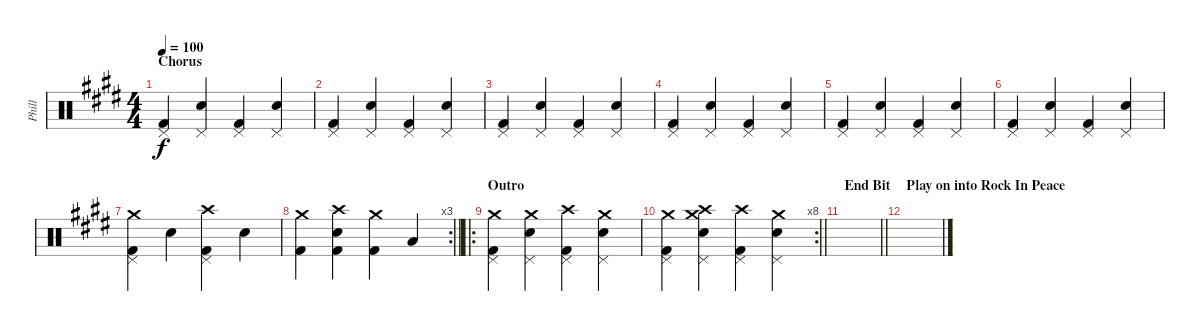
\track ("Phill" "Phill") {instrument percussion}
\staff {score}
\articulation defaults
\ts (4 4)
\section ("" "Chorus")
\tempo 100
\clef neutral
\ks e
("Kick (hit) 2" "Pedal Hi-Hat (hit)").4{dy f} ("Snare (hit) 2" "Pedal Hi-Hat (hit)").4 ("Kick (hit) 2" "Pedal Hi-Hat (hit)").4 ("Snare (hit) 2" "Pedal Hi-Hat (hit)").4 |
("Kick (hit) 2" "Pedal Hi-Hat (hit)").4 ("Snare (hit) 2" "Pedal Hi-Hat (hit)").4 ("Kick (hit) 2" "Pedal Hi-Hat (hit)").4 ("Snare (hit) 2" "Pedal Hi-Hat (hit)").4 |
("Kick (hit) 2" "Pedal Hi-Hat (hit)").4 ("Snare (hit) 2" "Pedal Hi-Hat (hit)").4 ("Kick (hit) 2" "Pedal Hi-Hat (hit)").4 ("Snare (hit) 2" "Pedal Hi-Hat (hit)").4 |
("Kick (hit) 2" "Pedal Hi-Hat (hit)").4 ("Snare (hit) 2" "Pedal Hi-Hat (hit)").4 ("Kick (hit) 2" "Pedal Hi-Hat (hit)").4 ("Snare (hit) 2" "Pedal Hi-Hat (hit)").4 |
("Kick (hit) 2" "Pedal Hi-Hat (hit)").4 ("Snare (hit) 2" "Pedal Hi-Hat (hit)").4 ("Kick (hit) 2" "Pedal Hi-Hat (hit)").4 ("Snare (hit) 2" "Pedal Hi-Hat (hit)").4 |
("Kick (hit) 2" "Pedal Hi-Hat (hit)").4 ("Snare (hit) 2" "Pedal Hi-Hat (hit)").4 ("Kick (hit) 2" "Pedal Hi-Hat (hit)").4 ("Snare (hit) 2" "Pedal Hi-Hat (hit)").4 |
("Kick (hit) 2" "Pedal Hi-Hat (hit)" "Crash medium (hit)").4 "Snare (hit) 2".4 ("Kick (hit) 2" "Pedal Hi-Hat (hit)" "Crash high (hit)").4 "Snare (hit) 2".4 |
\rc 3
\barLineRight lightlight
("Kick (hit) 2" "Crash medium (hit)").4 ("Kick (hit) 2" "Snare (hit) 2" "Crash high (hit)").4 ("Kick (hit) 2" "Crash medium (hit)").4 "Low Floor Tom (hit)".4 |
\ro
\section ("" "Outro")
("Kick (hit) 2" "Pedal Hi-Hat (hit)" "Crash medium (hit)").4 ("Snare (hit) 2" "Pedal Hi-Hat (hit)" "Crash medium (hit)").4 ("Kick (hit) 2" "Pedal Hi-Hat (hit)" "Crash high (hit)").4 ("Snare (hit) 2" "Pedal Hi-Hat (hit)" "Crash medium (hit)").4 |
\rc 8
\barLineRight lightlight
("Kick (hit) 2" "Pedal Hi-Hat (hit)" "Crash medium (hit)").4 ("Snare (hit) 2" "Pedal Hi-Hat (hit)" "Crash medium (hit)" "Crash high (hit)").4 ("Kick (hit) 2" "Pedal Hi-Hat (hit)" "Crash high (hit)").4 ("Snare (hit) 2" "Pedal Hi-Hat (hit)" "Crash medium (hit)").4 |
\section ("" "End Bit")
\barLineRight lightlight
|
\section ("" "Play on into Rock In Peace")
